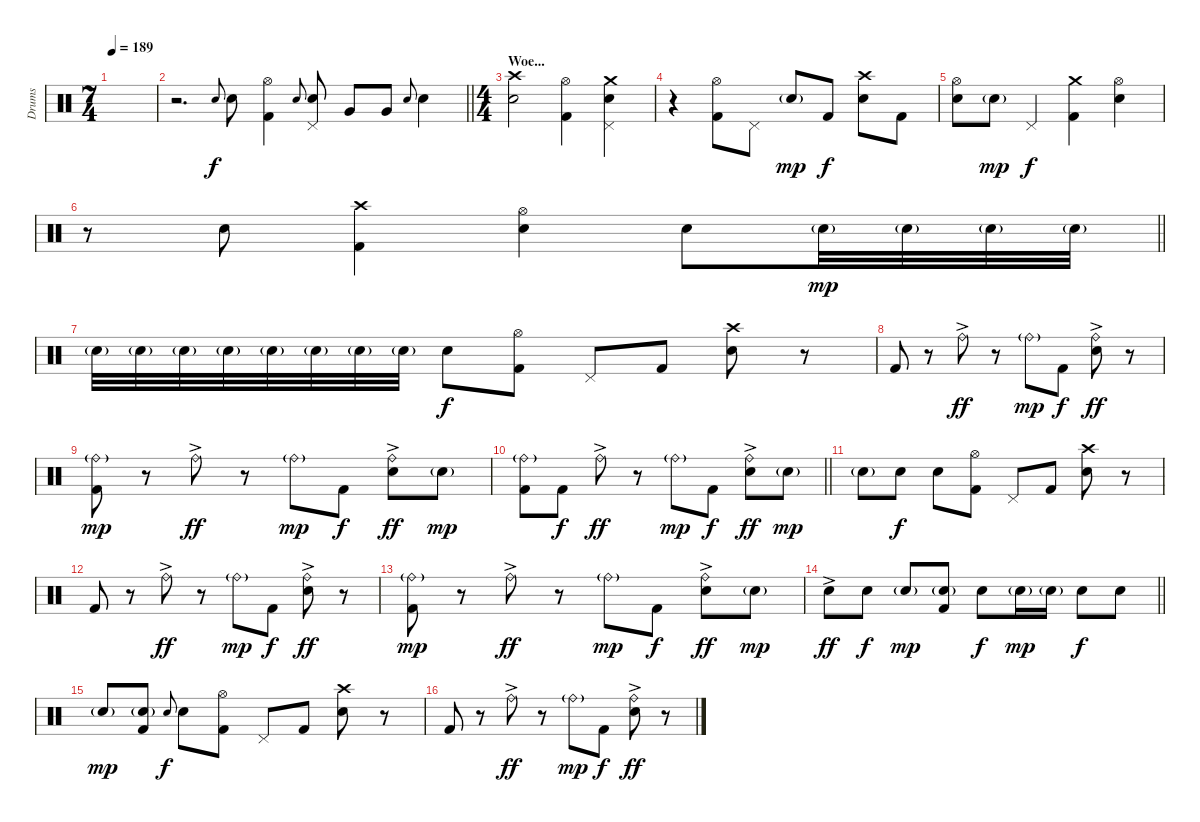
\track ("Drums" "Drums") {instrument percussion}
\staff {score}
\articulation defaults
\ts (7 4)
\tempo 189
\clef neutral
\ks c
|
\barLineRight lightlight
r.2{d} "Snare (hit) 2".8{gr onbeat} "Snare (hit) 2".8 ("Hi-Hat (open)" "Kick (hit) 2").4 "Snare (hit) 2".8{gr onbeat} ("Pedal Hi-Hat (hit)" "Snare (hit) 2").8 "Very Low Tom (hit)".8 "Very Low Tom (hit)".8 "Snare (hit) 2".8{gr onbeat} "Snare (hit) 2".4 |
\ts (4 4)
\section ("" "Woe...")
("Crash high (hit)" "Snare (hit) 2").2 ("Hi-Hat (open)" "Kick (hit) 2").4 ("Crash medium (hit)" "Pedal Hi-Hat (hit)" "Snare (hit) 2").4 |
r.4 ("Hi-Hat (open)" "Kick (hit) 2").8 "Pedal Hi-Hat (hit)".8 "Electric Snare (hit)"{g}.8{dy mp} "Kick (hit) 2".8{dy f} ("Crash high (hit)" "Snare (hit) 2").8 "Kick (hit) 2".8 |
("Hi-Hat (open)" "Snare (hit) 2").8 "Electric Snare (hit)"{g}.8{dy mp} "Pedal Hi-Hat (hit)".4{dy f} ("Crash medium (hit)" "Kick (hit) 2").4 ("Hi-Hat (open)" "Snare (hit) 2").4 |
\barLineRight lightlight
r.8 "Snare (hit) 2".8 ("Crash high (hit)" "Kick (hit) 2").4 ("Hi-Hat (open)" "Snare (hit) 2").4 "Snare (hit) 2".8 "Electric Snare (hit)"{g}.32{dy mp} "Electric Snare (hit)"{g}.32 "Electric Snare (hit)"{g}.32 "Electric Snare (hit)"{g}.32 |
\section ("" "")
"Electric Snare (hit)"{g}.32 "Electric Snare (hit)"{g}.32 "Electric Snare (hit)"{g}.32 "Electric Snare (hit)"{g}.32 "Electric Snare (hit)"{g}.32 "Electric Snare (hit)"{g}.32 "Electric Snare (hit)"{g}.32 "Electric Snare (hit)"{g}.32 "Snare (hit) 2".8{dy f} ("Hi-Hat (open)" "Kick (hit) 2").8 "Pedal Hi-Hat (hit)".8 "Kick (hit) 2".8 ("Crash high (hit)" "Snare (hit) 2").8 r.8 |
"Kick (hit) 2".8 r.8 "Ride (bell)"{ac}.8{dy ff} r.8 "Ride (bell)"{g}.8{dy mp} "Kick (hit) 2".8{dy f} ("Ride (bell)"{ac} "Snare (hit) 2").8{dy ff} r.8 |
("Ride (bell)"{g} "Kick (hit) 2").8{dy mp} r.8 "Ride (bell)"{ac}.8{dy ff} r.8 "Ride (bell)"{g}.8{dy mp} "Kick (hit) 2".8{dy f} ("Ride (bell)"{ac} "Snare (hit) 2").8{dy ff} "Electric Snare (hit)"{g}.8{dy mp} |
\barLineRight lightlight
("Ride (bell)"{g} "Kick (hit) 2").8 "Kick (hit) 2".8{dy f} "Ride (bell)"{ac}.8{dy ff} r.8 "Ride (bell)"{g}.8{dy mp} "Kick (hit) 2".8{dy f} ("Ride (bell)"{ac} "Snare (hit) 2").8{dy ff} "Electric Snare (hit)"{g}.8{dy mp} |
\section ("" "")
"Electric Snare (hit)"{g}.8 "Snare (hit) 2".8{dy f} "Snare (hit) 2".8 ("Hi-Hat (open)" "Kick (hit) 2").8 "Pedal Hi-Hat (hit)".8 "Kick (hit) 2".8 ("Crash high (hit)" "Snare (hit) 2").8 r.8 |
"Kick (hit) 2".8 r.8 "Ride (bell)"{ac}.8{dy ff} r.8 "Ride (bell)"{g}.8{dy mp} "Kick (hit) 2".8{dy f} ("Ride (bell)"{ac} "Snare (hit) 2").8{dy ff} r.8 |
("Ride (bell)"{g} "Kick (hit) 2").8{dy mp} r.8 "Ride (bell)"{ac}.8{dy ff} r.8 "Ride (bell)"{g}.8{dy mp} "Kick (hit) 2".8{dy f} ("Ride (bell)"{ac} "Snare (hit) 2").8{dy ff} "Electric Snare (hit)"{g}.8{dy mp} |
\barLineRight lightlight "Electric Snare (hit)"{ac}.8{dy ff} "Electric Snare (hit)".8{dy f} "Electric Snare (hit)"{g}.8{dy mp}
("Electric Snare (hit)"{g} "Kick (hit) 2").8 "Snare (hit) 2".8{dy f} "Electric Snare (hit)"{g}.16{dy mp} "Electric Snare (hit)"{g}.16 "Snare (hit) 2".8{dy f} "Snare (hit) 2".8 |
\section ("" "")
"Electric Snare (hit)"{g}.8{dy mp} ("Electric Snare (hit)"{g} "Kick (hit) 2").8 "Snare (hit) 2".8{gr onbeat dy f} "Snare (hit) 2".8 ("Hi-Hat (open)" "Kick (hit) 2").8 "Pedal Hi-Hat (hit)".8 "Kick (hit) 2".8 ("Crash high (hit)" "Snare (hit) 2").8 r.8 |
"Kick (hit) 2".8 r.8 "Ride (bell)"{ac}.8{dy ff} r.8 "Ride (bell)"{g}.8{dy mp} "Kick (hit) 2".8{dy f} ("Ride (bell)"{ac} "Snare (hit) 2").8{dy ff} r.8
